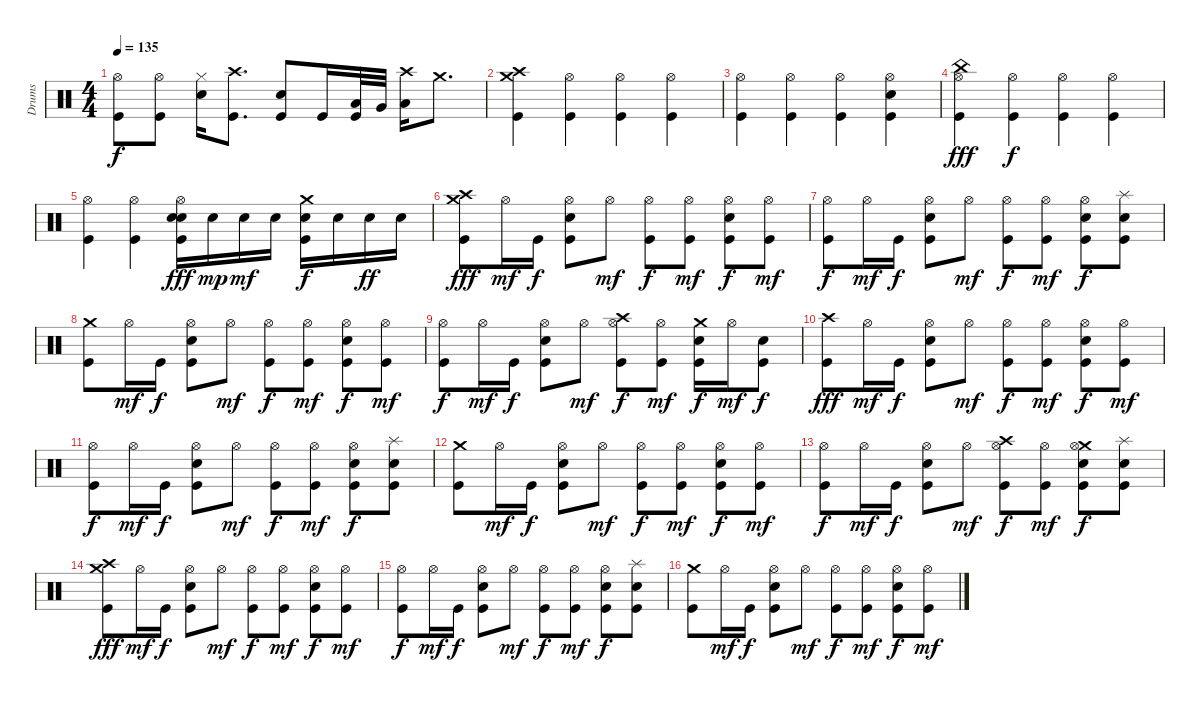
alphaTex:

\track ("Drums" "Drums") {instrument percussion}
\staff {score}
\articulation defaults
\ts (4 4)
\tempo 135
\clef neutral
\ks c
("Hi-Hat (open)" "Kick (hit)").8{dy f} ("Hi-Hat (open)" "Kick (hit)").8 ("Hi-Hat (closed)" "Snare (hit) 2").16 ("Crash high (hit)" "Kick (hit)").8{d} ("Snare (hit) 2" "Kick (hit)").8 "Kick (hit)".16 ("Low Tom (hit)" "Kick (hit)").32 "Very Low Tom (hit)".32 ("Low Floor Tom (hit)" "Crash high (hit)").16 "Crash medium (hit)".8{d} |
("Crash medium (hit)" "Crash high (hit)" "Kick (hit)").4 ("Hi-Hat (open)" "Kick (hit)").4 ("Hi-Hat (open)" "Kick (hit)").4 ("Hi-Hat (open)" "Kick (hit)").4 |
("Hi-Hat (open)" "Kick (hit)").4 ("Hi-Hat (open)" "Kick (hit)").4 ("Hi-Hat (open)" "Kick (hit)").4 ("Snare (hit) 2" "Kick (hit)" "Hi-Hat (open)").4 |
("Kick (hit)" "Hi-Hat (open)" "China (hit)").4{dy fff} ("Kick (hit)" "Hi-Hat (open)").4{dy f} ("Hi-Hat (open)" "Kick (hit)").4 ("Hi-Hat (open)" "Kick (hit)").4 |
("Hi-Hat (open)" "Kick (hit)").4 ("Hi-Hat (open)" "Kick (hit)").4 ("Electric Snare (hit)" "Hi-Hat (open)" "Kick (hit)" "Snare (hit) 2").16{dy fff} "Snare (hit) 2".16{dy mp} "Snare (hit) 2".16{dy mf} "Snare (hit) 2".16 ("Snare (hit) 2" "Kick (hit)" "Crash medium (hit)").16{dy f} "Snare (hit) 2".16 "Snare (hit) 2".16{dy ff} "Snare (hit) 2".16 |
("Crash medium (hit)" "Kick (hit)" "Crash high (hit)").8{dy fff} "Hi-Hat (open)".16{dy mf} "Kick (hit)".16{dy f} ("Hi-Hat (open)" "Snare (hit) 2" "Kick (hit)").8 "Hi-Hat (open)".8{dy mf} ("Hi-Hat (open)" "Kick (hit)").8{dy f} ("Hi-Hat (open)" "Kick (hit)").8{dy mf} ("Kick (hit)" "Hi-Hat (open)" "Snare (hit) 2").8{dy f} ("Hi-Hat (open)" "Kick (hit)").8{dy mf} |
("Hi-Hat (open)" "Kick (hit)").8{dy f} "Hi-Hat (open)".16{dy mf} "Kick (hit)".16{dy f} ("Hi-Hat (open)" "Snare (hit) 2" "Kick (hit)").8 "Hi-Hat (open)".8{dy mf} ("Hi-Hat (open)" "Kick (hit)").8{dy f} ("Hi-Hat (open)" "Kick (hit)").8{dy mf} ("Kick (hit)" "Hi-Hat (open)" "Snare (hit) 2").8{dy f} ("Kick (hit)" "Splash (hit)" "Snare (hit) 2").8 |
("Crash medium (hit)" "Kick (hit)").8 "Hi-Hat (open)".16{dy mf} "Kick (hit)".16{dy f} ("Hi-Hat (open)" "Snare (hit) 2" "Kick (hit)").8 "Hi-Hat (open)".8{dy mf} ("Hi-Hat (open)" "Kick (hit)").8{dy f} ("Hi-Hat (open)" "Kick (hit)").8{dy mf} ("Kick (hit)" "Hi-Hat (open)" "Snare (hit) 2").8{dy f} ("Kick (hit)" "Hi-Hat (open)").8{dy mf} |
("Hi-Hat (open)" "Kick (hit)").8{dy f} "Hi-Hat (open)".16{dy mf} "Kick (hit)".16{dy f} ("Hi-Hat (open)" "Snare (hit) 2" "Kick (hit)").8 "Hi-Hat (open)".8{dy mf} ("Crash high (hit)" "Hi-Hat (open)" "Kick (hit)").8{dy f} ("Kick (hit)" "Hi-Hat (open)").8{dy mf} ("Crash medium (hit)" "Snare (hit) 2" "Kick (hit)").16{dy f} "Hi-Hat (open)".16{dy mf} ("Kick (hit)" "Snare (hit) 2").8{dy f} |
("Kick (hit)" "Crash high (hit)").8{dy fff} "Hi-Hat (open)".16{dy mf} "Kick (hit)".16{dy f} ("Hi-Hat (open)" "Snare (hit) 2" "Kick (hit)").8 "Hi-Hat (open)".8{dy mf} ("Hi-Hat (open)" "Kick (hit)").8{dy f} ("Hi-Hat (open)" "Kick (hit)").8{dy mf} ("Kick (hit)" "Hi-Hat (open)" "Snare (hit) 2").8{dy f} ("Hi-Hat (open)" "Kick (hit)").8{dy mf} |
("Hi-Hat (open)" "Kick (hit)").8{dy f} "Hi-Hat (open)".16{dy mf} "Kick (hit)".16{dy f} ("Hi-Hat (open)" "Snare (hit) 2" "Kick (hit)").8 "Hi-Hat (open)".8{dy mf} ("Hi-Hat (open)" "Kick (hit)").8{dy f} ("Hi-Hat (open)" "Kick (hit)").8{dy mf} ("Kick (hit)" "Hi-Hat (open)" "Snare (hit) 2").8{dy f} ("Kick (hit)" "Splash (hit)" "Snare (hit) 2").8 |
("Crash medium (hit)" "Kick (hit)").8 "Hi-Hat (open)".16{dy mf} "Kick (hit)".16{dy f} ("Kick (hit)" "Hi-Hat (open)" "Snare (hit) 2").8 "Hi-Hat (open)".8{dy mf} ("Hi-Hat (open)" "Kick (hit)").8{dy f} ("Hi-Hat (open)" "Kick (hit)").8{dy mf} ("Kick (hit)" "Hi-Hat (open)" "Snare (hit) 2").8{dy f} ("Kick (hit)" "Hi-Hat (open)").8{dy mf} |
("Hi-Hat (open)" "Kick (hit)").8{dy f} "Hi-Hat (open)".16{dy mf} "Kick (hit)".16{dy f} ("Hi-Hat (open)" "Snare (hit) 2" "Kick (hit)").8 "Hi-Hat (open)".8{dy mf} ("Crash high (hit)" "Hi-Hat (open)" "Kick (hit)").8{dy f} ("Kick (hit)" "Hi-Hat (open)").8{dy mf} ("Crash medium (hit)" "Hi-Hat (open)" "Snare (hit) 2" "Kick (hit)").8{dy f} ("Kick (hit)" "Splash (hit)" "Snare (hit) 2").8 |
("Crash medium (hit)" "Kick (hit)" "Crash high (hit)").8{dy fff} "Hi-Hat (open)".16{dy mf} "Kick (hit)".16{dy f} ("Hi-Hat (open)" "Snare (hit) 2" "Kick (hit)").8 "Hi-Hat (open)".8{dy mf} ("Hi-Hat (open)" "Kick (hit)").8{dy f} ("Hi-Hat (open)" "Kick (hit)").8{dy mf} ("Kick (hit)" "Hi-Hat (open)" "Snare (hit) 2").8{dy f} ("Hi-Hat (open)" "Kick (hit)").8{dy mf} |
("Hi-Hat (open)" "Kick (hit)").8{dy f} "Hi-Hat (open)".16{dy mf} "Kick (hit)".16{dy f} ("Hi-Hat (open)" "Snare (hit) 2" "Kick (hit)").8 "Hi-Hat (open)".8{dy mf} ("Hi-Hat (open)" "Kick (hit)").8{dy f} ("Hi-Hat (open)" "Kick (hit)").8{dy mf} ("Kick (hit)" "Hi-Hat (open)" "Snare (hit) 2").8{dy f} ("Kick (hit)" "Splash (hit)" "Snare (hit) 2").8 |
("Crash medium (hit)" "Kick (hit)").8 "Hi-Hat (open)".16{dy mf} "Kick (hit)".16{dy f} ("Hi-Hat (open)" "Snare (hit) 2" "Kick (hit)").8 "Hi-Hat (open)".8{dy mf} ("Hi-Hat (open)" "Kick (hit)").8{dy f} ("Hi-Hat (open)" "Kick (hit)").8{dy mf} ("Kick (hit)" "Hi-Hat (open)" "Snare (hit) 2").8{dy f} ("Kick (hit)" "Hi-Hat (open)").8{dy mf}
